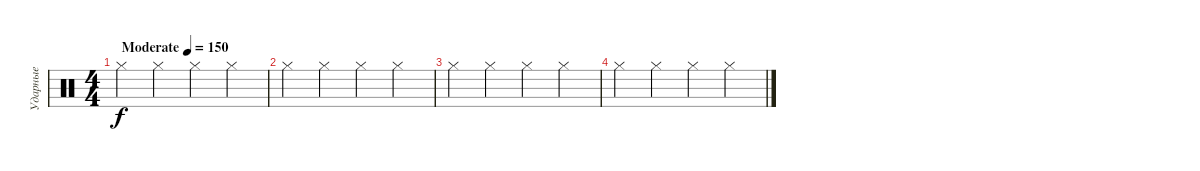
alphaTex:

\track ("Ударные" "Ударные") {instrument percussion}
\staff {score}
\articulation defaults
\ts (4 4)
\tempo (150 "Moderate")
\clef neutral
\ks c "Hi-Hat (closed)".4{dy f} "Hi-Hat (closed)".4 "Hi-Hat (closed)".4 "Hi-Hat (closed)".4
|
"Hi-Hat (closed)".4 "Hi-Hat (closed)".4 "Hi-Hat (closed)".4 "Hi-Hat (closed)".4 |
"Hi-Hat (closed)".4 "Hi-Hat (closed)".4 "Hi-Hat (closed)".4 "Hi-Hat (closed)".4 |
"Hi-Hat (closed)".4 "Hi-Hat (closed)".4 "Hi-Hat (closed)".4 "Hi-Hat (closed)".4
